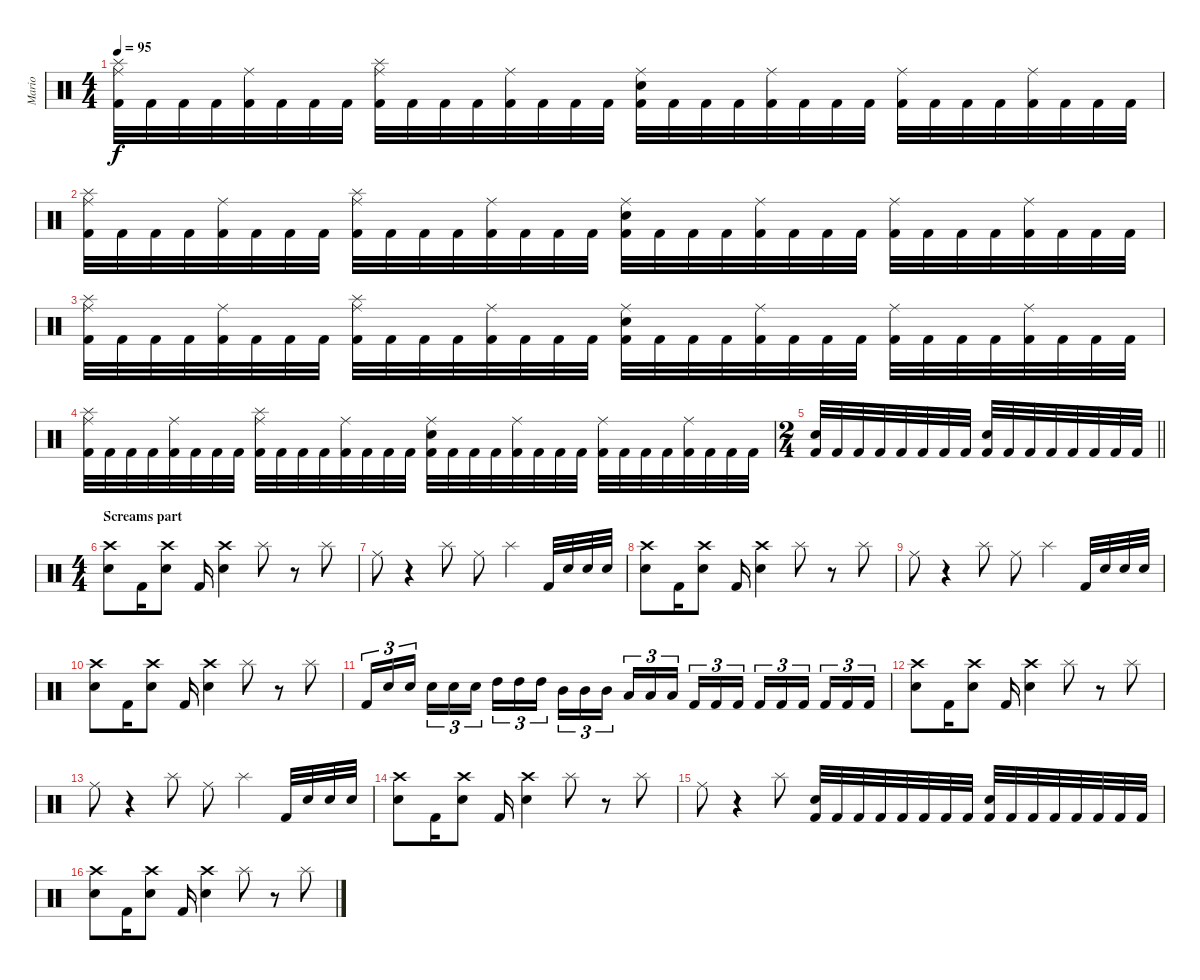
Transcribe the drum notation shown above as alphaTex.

\track ("Mario" "Mario") {instrument percussion}
\staff {score}
\articulation defaults
\ts (4 4)
\tempo 95
\clef neutral
\ks c
("Ride (middle)" "Splash (hit)" "Kick (hit) 2").32{dy f} "Kick (hit) 2".32 "Kick (hit) 2".32 "Kick (hit) 2".32 ("Ride (middle)" "Kick (hit) 2").32 "Kick (hit) 2".32 "Kick (hit) 2".32 "Kick (hit) 2".32 ("Ride (middle)" "Splash (hit)" "Kick (hit) 2").32 "Kick (hit) 2".32 "Kick (hit) 2".32 "Kick (hit) 2".32 ("Ride (middle)" "Kick (hit) 2").32 "Kick (hit) 2".32 "Kick (hit) 2".32 "Kick (hit) 2".32 ("Ride (middle)" "Electric Snare (hit)" "Kick (hit) 2").32 "Kick (hit) 2".32 "Kick (hit) 2".32 "Kick (hit) 2".32 ("Ride (middle)" "Kick (hit) 2").32 "Kick (hit) 2".32 "Kick (hit) 2".32 "Kick (hit) 2".32 ("Ride (middle)" "Kick (hit) 2").32 "Kick (hit) 2".32 "Kick (hit) 2".32 "Kick (hit) 2".32 ("Ride (middle)" "Kick (hit) 2").32 "Kick (hit) 2".32 "Kick (hit) 2".32 "Kick (hit) 2".32 |
("Ride (middle)" "Splash (hit)" "Kick (hit) 2").32 "Kick (hit) 2".32 "Kick (hit) 2".32 "Kick (hit) 2".32 ("Ride (middle)" "Kick (hit) 2").32 "Kick (hit) 2".32 "Kick (hit) 2".32 "Kick (hit) 2".32 ("Ride (middle)" "Splash (hit)" "Kick (hit) 2").32 "Kick (hit) 2".32 "Kick (hit) 2".32 "Kick (hit) 2".32 ("Ride (middle)" "Kick (hit) 2").32 "Kick (hit) 2".32 "Kick (hit) 2".32 "Kick (hit) 2".32 ("Ride (middle)" "Electric Snare (hit)" "Kick (hit) 2").32 "Kick (hit) 2".32 "Kick (hit) 2".32 "Kick (hit) 2".32 ("Ride (middle)" "Kick (hit) 2").32 "Kick (hit) 2".32 "Kick (hit) 2".32 "Kick (hit) 2".32 ("Ride (middle)" "Kick (hit) 2").32 "Kick (hit) 2".32 "Kick (hit) 2".32 "Kick (hit) 2".32 ("Ride (middle)" "Kick (hit) 2").32 "Kick (hit) 2".32 "Kick (hit) 2".32 "Kick (hit) 2".32 |
("Ride (middle)" "Splash (hit)" "Kick (hit) 2").32 "Kick (hit) 2".32 "Kick (hit) 2".32 "Kick (hit) 2".32 ("Ride (middle)" "Kick (hit) 2").32 "Kick (hit) 2".32 "Kick (hit) 2".32 "Kick (hit) 2".32 ("Ride (middle)" "Splash (hit)" "Kick (hit) 2").32 "Kick (hit) 2".32 "Kick (hit) 2".32 "Kick (hit) 2".32 ("Ride (middle)" "Kick (hit) 2").32 "Kick (hit) 2".32 "Kick (hit) 2".32 "Kick (hit) 2".32 ("Ride (middle)" "Electric Snare (hit)" "Kick (hit) 2").32 "Kick (hit) 2".32 "Kick (hit) 2".32 "Kick (hit) 2".32 ("Ride (middle)" "Kick (hit) 2").32 "Kick (hit) 2".32 "Kick (hit) 2".32 "Kick (hit) 2".32 ("Ride (middle)" "Kick (hit) 2").32 "Kick (hit) 2".32 "Kick (hit) 2".32 "Kick (hit) 2".32 ("Ride (middle)" "Kick (hit) 2").32 "Kick (hit) 2".32 "Kick (hit) 2".32 "Kick (hit) 2".32 |
("Ride (middle)" "Splash (hit)" "Kick (hit) 2").32 "Kick (hit) 2".32 "Kick (hit) 2".32 "Kick (hit) 2".32 ("Ride (middle)" "Kick (hit) 2").32 "Kick (hit) 2".32 "Kick (hit) 2".32 "Kick (hit) 2".32 ("Ride (middle)" "Splash (hit)" "Kick (hit) 2").32 "Kick (hit) 2".32 "Kick (hit) 2".32 "Kick (hit) 2".32 ("Ride (middle)" "Kick (hit) 2").32 "Kick (hit) 2".32 "Kick (hit) 2".32 "Kick (hit) 2".32 ("Ride (middle)" "Electric Snare (hit)" "Kick (hit) 2").32 "Kick (hit) 2".32 "Kick (hit) 2".32 "Kick (hit) 2".32 ("Ride (middle)" "Kick (hit) 2").32 "Kick (hit) 2".32 "Kick (hit) 2".32 "Kick (hit) 2".32 ("Ride (middle)" "Kick (hit) 2").32 "Kick (hit) 2".32 "Kick (hit) 2".32 "Kick (hit) 2".32 ("Ride (middle)" "Kick (hit) 2").32 "Kick (hit) 2".32 "Kick (hit) 2".32 "Kick (hit) 2".32 |
\ts (2 4)
\barLineRight lightlight
("Electric Snare (hit)" "Kick (hit) 2").32 "Kick (hit) 2".32 "Kick (hit) 2".32 "Kick (hit) 2".32 "Kick (hit) 2".32 "Kick (hit) 2".32 "Kick (hit) 2".32 "Kick (hit) 2".32 ("Electric Snare (hit)" "Kick (hit) 2").32 "Kick (hit) 2".32 "Kick (hit) 2".32 "Kick (hit) 2".32 "Kick (hit) 2".32 "Kick (hit) 2".32 "Kick (hit) 2".32 "Kick (hit) 2".32 |
\ts (4 4)
\section ("" "Screams part")
("Crash high (hit)" "Electric Snare (hit)").8 "Kick (hit) 2".16 ("Crash high (hit)" "Electric Snare (hit)").8 "Kick (hit) 2".16 ("Crash high (hit)" "Electric Snare (hit)").4 "Splash (hit)".8 r.8 "Splash (hit)".8 |
"Ride (middle)".8 r.4 "Splash (hit)".8 "Ride (middle)".8 "Splash (hit)".4 "Kick (hit) 2".32 "Electric Snare (hit)".32 "Electric Snare (hit)".32 "Electric Snare (hit)".32 |
("Crash high (hit)" "Electric Snare (hit)").8 "Kick (hit) 2".16 ("Crash high (hit)" "Electric Snare (hit)").8 "Kick (hit) 2".16 ("Crash high (hit)" "Electric Snare (hit)").4 "Splash (hit)".8 r.8 "Splash (hit)".8 |
"Ride (middle)".8 r.4 "Splash (hit)".8 "Ride (middle)".8 "Splash (hit)".4 "Kick (hit) 2".32 "Electric Snare (hit)".32 "Electric Snare (hit)".32 "Electric Snare (hit)".32 |
("Crash high (hit)" "Electric Snare (hit)").8 "Kick (hit) 2".16 ("Crash high (hit)" "Electric Snare (hit)").8 "Kick (hit) 2".16 ("Crash high (hit)" "Electric Snare (hit)").4 "Splash (hit)".8 r.8 "Splash (hit)".8 |
"Kick (hit) 2".16{tu (3 2)} "Electric Snare (hit)".16{tu (3 2)} "Electric Snare (hit)".16{tu (3 2) beam splitsecondary} "Electric Snare (hit)".16{tu (3 2)} "Electric Snare (hit)".16{tu (3 2)} "Electric Snare (hit)".16{tu (3 2)} "High Tom (hit)".16{tu (3 2)} "High Tom (hit)".16{tu (3 2)} "High Tom (hit)".16{tu (3 2) beam splitsecondary} "Mid Tom (hit)".16{tu (3 2)} "Mid Tom (hit)".16{tu (3 2)} "Mid Tom (hit)".16{tu (3 2)} "Low Tom (hit)".16{tu (3 2)} "Low Tom (hit)".16{tu (3 2)} "Low Tom (hit)".16{tu (3 2) beam splitsecondary} "Kick (hit) 2".16{tu (3 2)} "Kick (hit) 2".16{tu (3 2)} "Kick (hit) 2".16{tu (3 2)} "Kick (hit) 2".16{tu (3 2)} "Kick (hit) 2".16{tu (3 2)} "Kick (hit) 2".16{tu (3 2) beam splitsecondary} "Kick (hit) 2".16{tu (3 2)} "Kick (hit) 2".16{tu (3 2)} "Kick (hit) 2".16{tu (3 2)} |
("Crash high (hit)" "Electric Snare (hit)").8 "Kick (hit) 2".16 ("Crash high (hit)" "Electric Snare (hit)").8 "Kick (hit) 2".16 ("Crash high (hit)" "Electric Snare (hit)").4 "Splash (hit)".8 r.8 "Splash (hit)".8 |
"Ride (middle)".8 r.4 "Splash (hit)".8 "Ride (middle)".8 "Splash (hit)".4 "Kick (hit) 2".32 "Electric Snare (hit)".32 "Electric Snare (hit)".32 "Electric Snare (hit)".32 |
("Crash high (hit)" "Electric Snare (hit)").8 "Kick (hit) 2".16 ("Crash high (hit)" "Electric Snare (hit)").8 "Kick (hit) 2".16 ("Crash high (hit)" "Electric Snare (hit)").4 "Splash (hit)".8 r.8 "Splash (hit)".8 |
"Ride (middle)".8 r.4 "Splash (hit)".8 ("Electric Snare (hit)" "Kick (hit) 2").32 "Kick (hit) 2".32 "Kick (hit) 2".32 "Kick (hit) 2".32 "Kick (hit) 2".32 "Kick (hit) 2".32 "Kick (hit) 2".32 "Kick (hit) 2".32 ("Electric Snare (hit)" "Kick (hit) 2").32 "Kick (hit) 2".32 "Kick (hit) 2".32 "Kick (hit) 2".32 "Kick (hit) 2".32 "Kick (hit) 2".32 "Kick (hit) 2".32 "Kick (hit) 2".32 |
("Crash high (hit)" "Electric Snare (hit)").8 "Kick (hit) 2".16 ("Crash high (hit)" "Electric Snare (hit)").8 "Kick (hit) 2".16 ("Crash high (hit)" "Electric Snare (hit)").4 "Splash (hit)".8 r.8 "Splash (hit)".8
